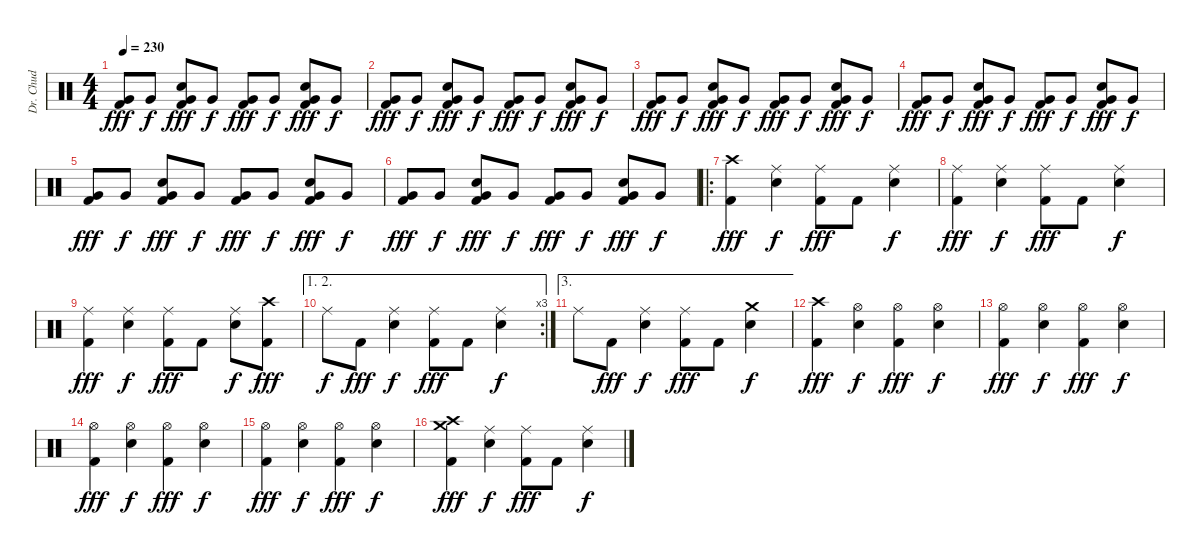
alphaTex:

\track ("Dr. Chud" "Dr. Chud") {instrument percussion}
\staff {score}
\articulation defaults
\ts (4 4)
\tempo 230
\clef neutral
\ks c
("Very Low Tom (hit)" "Kick (hit) 2").8{dy fff} "Very Low Tom (hit)".8{dy f} ("Snare (hit) 2" "Very Low Tom (hit)" "Kick (hit) 2").8{dy fff} "Very Low Tom (hit)".8{dy f} ("Very Low Tom (hit)" "Kick (hit) 2").8{dy fff} "Very Low Tom (hit)".8{dy f} ("Snare (hit) 2" "Very Low Tom (hit)" "Kick (hit) 2").8{dy fff} "Very Low Tom (hit)".8{dy f} |
("Very Low Tom (hit)" "Kick (hit) 2").8{dy fff} "Very Low Tom (hit)".8{dy f} ("Snare (hit) 2" "Very Low Tom (hit)" "Kick (hit) 2").8{dy fff} "Very Low Tom (hit)".8{dy f} ("Very Low Tom (hit)" "Kick (hit) 2").8{dy fff} "Very Low Tom (hit)".8{dy f} ("Snare (hit) 2" "Very Low Tom (hit)" "Kick (hit) 2").8{dy fff} "Very Low Tom (hit)".8{dy f} |
("Very Low Tom (hit)" "Kick (hit) 2").8{dy fff} "Very Low Tom (hit)".8{dy f} ("Snare (hit) 2" "Very Low Tom (hit)" "Kick (hit) 2").8{dy fff} "Very Low Tom (hit)".8{dy f} ("Very Low Tom (hit)" "Kick (hit) 2").8{dy fff} "Very Low Tom (hit)".8{dy f} ("Snare (hit) 2" "Very Low Tom (hit)" "Kick (hit) 2").8{dy fff} "Very Low Tom (hit)".8{dy f} |
("Very Low Tom (hit)" "Kick (hit) 2").8{dy fff} "Very Low Tom (hit)".8{dy f} ("Snare (hit) 2" "Very Low Tom (hit)" "Kick (hit) 2").8{dy fff} "Very Low Tom (hit)".8{dy f} ("Very Low Tom (hit)" "Kick (hit) 2").8{dy fff} "Very Low Tom (hit)".8{dy f} ("Snare (hit) 2" "Very Low Tom (hit)" "Kick (hit) 2").8{dy fff} "Very Low Tom (hit)".8{dy f} |
("Very Low Tom (hit)" "Kick (hit) 2").8{dy fff} "Very Low Tom (hit)".8{dy f} ("Snare (hit) 2" "Very Low Tom (hit)" "Kick (hit) 2").8{dy fff} "Very Low Tom (hit)".8{dy f} ("Very Low Tom (hit)" "Kick (hit) 2").8{dy fff} "Very Low Tom (hit)".8{dy f} ("Snare (hit) 2" "Very Low Tom (hit)" "Kick (hit) 2").8{dy fff} "Very Low Tom (hit)".8{dy f} |
("Very Low Tom (hit)" "Kick (hit) 2").8{dy fff} "Very Low Tom (hit)".8{dy f} ("Snare (hit) 2" "Very Low Tom (hit)" "Kick (hit) 2").8{dy fff} "Very Low Tom (hit)".8{dy f} ("Very Low Tom (hit)" "Kick (hit) 2").8{dy fff} "Very Low Tom (hit)".8{dy f} ("Snare (hit) 2" "Very Low Tom (hit)" "Kick (hit) 2").8{dy fff} "Very Low Tom (hit)".8{dy f} |
\ro
("Crash high (hit)" "Kick (hit) 2").4{dy fff} ("Ride (middle)" "Snare (hit) 2").4{dy f} ("Ride (middle)" "Kick (hit) 2").8{dy fff} "Kick (hit) 2".8 ("Ride (middle)" "Snare (hit) 2").4{dy f} |
("Ride (middle)" "Kick (hit) 2").4{dy fff} ("Ride (middle)" "Snare (hit) 2").4{dy f} ("Ride (middle)" "Kick (hit) 2").8{dy fff} "Kick (hit) 2".8 ("Ride (middle)" "Snare (hit) 2").4{dy f} |
("Ride (middle)" "Kick (hit) 2").4{dy fff} ("Ride (middle)" "Snare (hit) 2").4{dy f} ("Ride (middle)" "Kick (hit) 2").8{dy fff} "Kick (hit) 2".8 ("Ride (middle)" "Snare (hit) 2").8{dy f} ("Crash high (hit)" "Kick (hit) 2").8{dy fff} |
\ae (1 2)
\rc 3 "Ride (middle)".8{dy f} "Kick (hit) 2".8{dy fff}
("Ride (middle)" "Snare (hit) 2").4{dy f} ("Ride (middle)" "Kick (hit) 2").8{dy fff} "Kick (hit) 2".8 ("Ride (middle)" "Snare (hit) 2").4{dy f} |
\ae 3 "Ride (middle)".8 "Kick (hit) 2".8{dy fff}
("Ride (middle)" "Snare (hit) 2").4{dy f} ("Ride (middle)" "Kick (hit) 2").8{dy fff} "Kick (hit) 2".8 ("Crash medium (hit)" "Snare (hit) 2").4{dy f} |
("Crash high (hit)" "Kick (hit) 2").4{dy fff} ("Hi-Hat (open)" "Snare (hit) 2").4{dy f} ("Hi-Hat (open)" "Kick (hit) 2").4{dy fff} ("Hi-Hat (open)" "Snare (hit) 2").4{dy f} |
("Hi-Hat (open)" "Kick (hit) 2").4{dy fff} ("Hi-Hat (open)" "Snare (hit) 2").4{dy f} ("Hi-Hat (open)" "Kick (hit) 2").4{dy fff} ("Hi-Hat (open)" "Snare (hit) 2").4{dy f} |
("Hi-Hat (open)" "Kick (hit) 2").4{dy fff} ("Hi-Hat (open)" "Snare (hit) 2").4{dy f} ("Hi-Hat (open)" "Kick (hit) 2").4{dy fff} ("Hi-Hat (open)" "Snare (hit) 2").4{dy f} |
("Hi-Hat (open)" "Kick (hit) 2").4{dy fff} ("Hi-Hat (open)" "Snare (hit) 2").4{dy f} ("Hi-Hat (open)" "Kick (hit) 2").4{dy fff} ("Hi-Hat (open)" "Snare (hit) 2").4{dy f} |
("Crash high (hit)" "Crash medium (hit)" "Kick (hit) 2").4{dy fff} ("Ride (middle)" "Snare (hit) 2").4{dy f} ("Ride (middle)" "Kick (hit) 2").8{dy fff} "Kick (hit) 2".8 ("Ride (middle)" "Snare (hit) 2").4{dy f}
